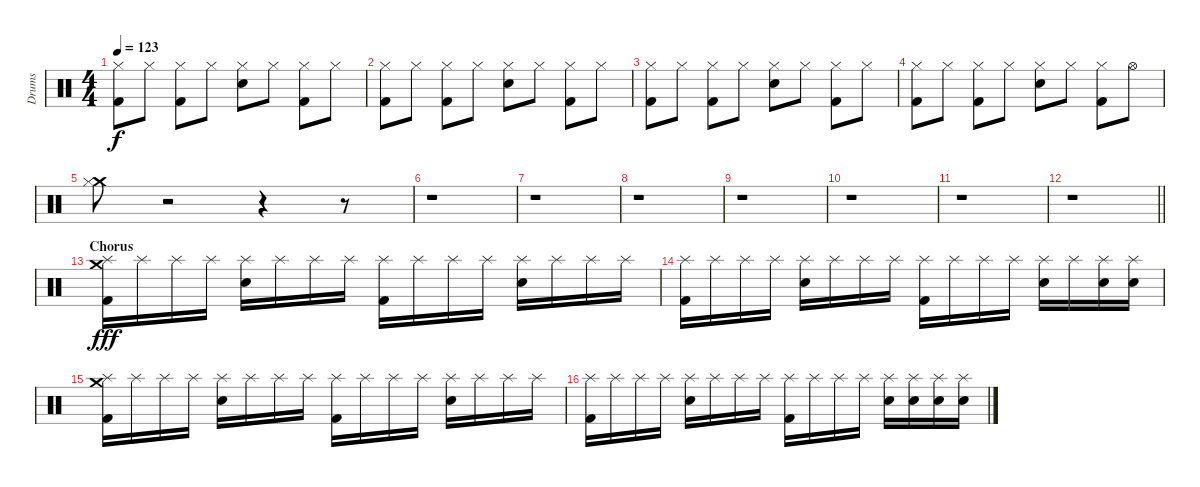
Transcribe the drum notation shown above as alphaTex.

\track ("Drums" "Drums") {instrument percussion}
\staff {score}
\articulation defaults
\ts (4 4)
\tempo 123
\clef neutral
\ks c
("Hi-Hat (closed)" "Kick (hit) 2").8{dy f} "Hi-Hat (closed)".8 ("Hi-Hat (closed)" "Kick (hit) 2").8 "Hi-Hat (closed)".8 ("Hi-Hat (closed)" "Electric Snare (hit)").8 "Hi-Hat (closed)".8 ("Hi-Hat (closed)" "Kick (hit) 2").8 "Hi-Hat (closed)".8 |
("Hi-Hat (closed)" "Kick (hit) 2").8 "Hi-Hat (closed)".8 ("Hi-Hat (closed)" "Kick (hit) 2").8 "Hi-Hat (closed)".8 ("Hi-Hat (closed)" "Electric Snare (hit)").8 "Hi-Hat (closed)".8 ("Hi-Hat (closed)" "Kick (hit) 2").8 "Hi-Hat (closed)".8 |
("Hi-Hat (closed)" "Kick (hit) 2").8 "Hi-Hat (closed)".8 ("Hi-Hat (closed)" "Kick (hit) 2").8 "Hi-Hat (closed)".8 ("Hi-Hat (closed)" "Electric Snare (hit)").8 "Hi-Hat (closed)".8 ("Hi-Hat (closed)" "Kick (hit) 2").8 "Hi-Hat (closed)".8 |
("Hi-Hat (closed)" "Kick (hit) 2").8 "Hi-Hat (closed)".8 ("Hi-Hat (closed)" "Kick (hit) 2").8 "Hi-Hat (closed)".8 ("Hi-Hat (closed)" "Electric Snare (hit)").8 "Hi-Hat (closed)".8 ("Hi-Hat (closed)" "Kick (hit) 2").8 "Hi-Hat (open)".8 |
("Crash medium (hit)" "Hi-Hat (closed)").8 r.2 r.4 r.8 |
r.1 |
r.1 |
r.1 |
r.1 |
r.1 |
r.1 |
\barLineRight lightlight
r.1 |
\section ("" "Chorus")
("Crash medium (hit)" "Splash (hit)" "Kick (hit) 2").16{dy fff} "Splash (hit)".16 "Splash (hit)".16 "Splash (hit)".16 ("Splash (hit)" "Electric Snare (hit)").16 "Splash (hit)".16 "Splash (hit)".16 "Splash (hit)".16 ("Splash (hit)" "Kick (hit) 2").16 "Splash (hit)".16 "Splash (hit)".16 "Splash (hit)".16 ("Splash (hit)" "Electric Snare (hit)").16 "Splash (hit)".16 "Splash (hit)".16 "Splash (hit)".16 |
("Splash (hit)" "Kick (hit) 2").16 "Splash (hit)".16 "Splash (hit)".16 "Splash (hit)".16 ("Splash (hit)" "Electric Snare (hit)").16 "Splash (hit)".16 "Splash (hit)".16 "Splash (hit)".16 ("Splash (hit)" "Kick (hit) 2").16 "Splash (hit)".16 "Splash (hit)".16 "Splash (hit)".16 ("Splash (hit)" "Electric Snare (hit)").16 "Splash (hit)".16 ("Splash (hit)" "Electric Snare (hit)").16 ("Splash (hit)" "Electric Snare (hit)").16 |
("Crash medium (hit)" "Splash (hit)" "Kick (hit) 2").16 "Splash (hit)".16 "Splash (hit)".16 "Splash (hit)".16 ("Splash (hit)" "Electric Snare (hit)").16 "Splash (hit)".16 "Splash (hit)".16 "Splash (hit)".16 ("Splash (hit)" "Kick (hit) 2").16 "Splash (hit)".16 "Splash (hit)".16 "Splash (hit)".16 ("Splash (hit)" "Electric Snare (hit)").16 "Splash (hit)".16 "Splash (hit)".16 "Splash (hit)".16 |
("Splash (hit)" "Kick (hit) 2").16 "Splash (hit)".16 "Splash (hit)".16 "Splash (hit)".16 ("Splash (hit)" "Electric Snare (hit)").16 "Splash (hit)".16 "Splash (hit)".16 "Splash (hit)".16 ("Splash (hit)" "Kick (hit) 2").16 "Splash (hit)".16 "Splash (hit)".16 "Splash (hit)".16 ("Splash (hit)" "Electric Snare (hit)").16 ("Splash (hit)" "Electric Snare (hit)").16 ("Splash (hit)" "Electric Snare (hit)").16 ("Splash (hit)" "Electric Snare (hit)").16
